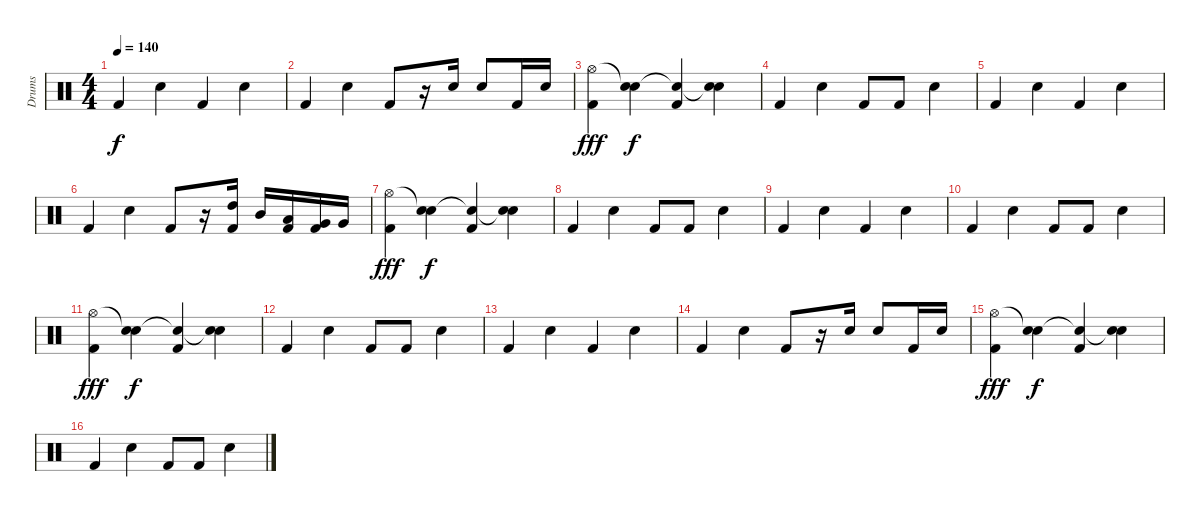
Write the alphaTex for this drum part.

\track ("Drums" "Drums") {instrument percussion}
\staff {score}
\articulation defaults
\ts (4 4)
\tempo 140
\clef neutral
\ks c "Kick (hit) 2".4{dy f} "Snare (hit) 2".4 "Kick (hit) 2".4 "Snare (hit) 2".4
|
"Kick (hit) 2".4 "Snare (hit) 2".4 "Kick (hit) 2".8 r.16 "Snare (hit) 2".16 "Snare (hit) 2".8 "Kick (hit) 2".16 "Snare (hit) 2".16 |
("Hi-Hat (open)" "Kick (hit) 2").4{dy fff} ("Snare (hit)"{t} "Snare (hit) 2").4{dy f} ("Snare (hit)"{t} "Kick (hit) 2").4 ("Snare (hit)"{t} "Snare (hit) 2").4 |
"Kick (hit) 2".4 "Snare (hit) 2".4 "Kick (hit) 2".8 "Kick (hit) 2".8 "Snare (hit) 2".4 |
"Kick (hit) 2".4 "Snare (hit) 2".4 "Kick (hit) 2".4 "Snare (hit) 2".4 |
"Kick (hit) 2".4 "Snare (hit) 2".4 "Kick (hit) 2".8 r.16 ("High Tom (hit)" "Kick (hit) 2").16 "Mid Tom (hit)".16 ("Low Tom (hit)" "Kick (hit) 2").16 ("Very Low Tom (hit)" "Kick (hit) 2").16 "Very Low Tom (hit)".16 |
("Hi-Hat (open)" "Kick (hit) 2").4{dy fff} ("Snare (hit)"{t} "Snare (hit) 2").4{dy f} ("Snare (hit)"{t} "Kick (hit) 2").4 ("Snare (hit)"{t} "Snare (hit) 2").4 |
"Kick (hit) 2".4 "Snare (hit) 2".4 "Kick (hit) 2".8 "Kick (hit) 2".8 "Snare (hit) 2".4 |
"Kick (hit) 2".4 "Snare (hit) 2".4 "Kick (hit) 2".4 "Snare (hit) 2".4 |
"Kick (hit) 2".4 "Snare (hit) 2".4 "Kick (hit) 2".8 "Kick (hit) 2".8 "Snare (hit) 2".4 |
("Hi-Hat (open)" "Kick (hit) 2").4{dy fff} ("Snare (hit)"{t} "Snare (hit) 2").4{dy f} ("Snare (hit)"{t} "Kick (hit) 2").4 ("Snare (hit)"{t} "Snare (hit) 2").4 |
"Kick (hit) 2".4 "Snare (hit) 2".4 "Kick (hit) 2".8 "Kick (hit) 2".8 "Snare (hit) 2".4 |
"Kick (hit) 2".4 "Snare (hit) 2".4 "Kick (hit) 2".4 "Snare (hit) 2".4 |
"Kick (hit) 2".4 "Snare (hit) 2".4 "Kick (hit) 2".8 r.16 "Snare (hit) 2".16 "Snare (hit) 2".8 "Kick (hit) 2".16 "Snare (hit) 2".16 |
("Hi-Hat (open)" "Kick (hit) 2").4{dy fff} ("Snare (hit)"{t} "Snare (hit) 2").4{dy f} ("Snare (hit)"{t} "Kick (hit) 2").4 ("Snare (hit)"{t} "Snare (hit) 2").4 |
"Kick (hit) 2".4 "Snare (hit) 2".4 "Kick (hit) 2".8 "Kick (hit) 2".8 "Snare (hit) 2".4
